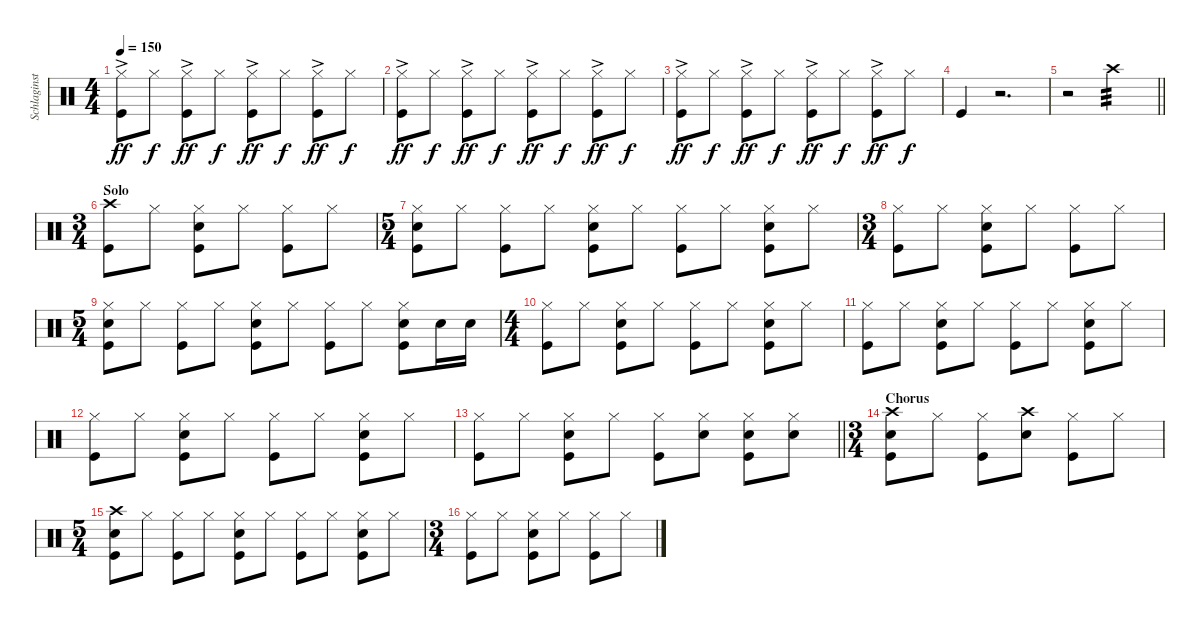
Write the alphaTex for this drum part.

\track ("Schlaginstrumente - Auswahl" "Schlaginst") {instrument percussion}
\staff {score}
\articulation defaults
\ts (4 4)
\tempo 150
\clef neutral
\ks c
("Hi-Hat (closed)"{ac} "Kick (hit)").8{dy ff} "Hi-Hat (closed)".8{dy f} ("Hi-Hat (closed)"{ac} "Kick (hit)").8{dy ff} "Hi-Hat (closed)".8{dy f} ("Hi-Hat (closed)"{ac} "Kick (hit)").8{dy ff} "Hi-Hat (closed)".8{dy f} ("Hi-Hat (closed)"{ac} "Kick (hit)").8{dy ff} "Hi-Hat (closed)".8{dy f} |
("Hi-Hat (closed)"{ac} "Kick (hit)").8{dy ff} "Hi-Hat (closed)".8{dy f} ("Hi-Hat (closed)"{ac} "Kick (hit)").8{dy ff} "Hi-Hat (closed)".8{dy f} ("Hi-Hat (closed)"{ac} "Kick (hit)").8{dy ff} "Hi-Hat (closed)".8{dy f} ("Hi-Hat (closed)"{ac} "Kick (hit)").8{dy ff} "Hi-Hat (closed)".8{dy f} |
("Hi-Hat (closed)"{ac} "Kick (hit)").8{dy ff} "Hi-Hat (closed)".8{dy f} ("Hi-Hat (closed)"{ac} "Kick (hit)").8{dy ff} "Hi-Hat (closed)".8{dy f} ("Hi-Hat (closed)"{ac} "Kick (hit)").8{dy ff} "Hi-Hat (closed)".8{dy f} ("Hi-Hat (closed)"{ac} "Kick (hit)").8{dy ff} "Hi-Hat (closed)".8{dy f} |
"Kick (hit)".4 r.2{d} |
\barLineRight lightlight
r.2 "Crash high (hit)".2{tp 3 volume 16} |
\ts (3 4)
\section ("" "Solo")
("Kick (hit)" "Crash high (hit)").8 "Hi-Hat (closed)".8 ("Hi-Hat (closed)" "Snare (hit) 2" "Kick (hit)").8 "Hi-Hat (closed)".8 ("Hi-Hat (closed)" "Kick (hit)").8 "Hi-Hat (closed)".8 |
\ts (5 4)
("Hi-Hat (closed)" "Snare (hit) 2" "Kick (hit)").8 "Hi-Hat (closed)".8 ("Hi-Hat (closed)" "Kick (hit)").8 "Hi-Hat (closed)".8 ("Hi-Hat (closed)" "Snare (hit) 2" "Kick (hit)").8 "Hi-Hat (closed)".8 ("Hi-Hat (closed)" "Kick (hit)").8 "Hi-Hat (closed)".8 ("Hi-Hat (closed)" "Snare (hit) 2" "Kick (hit)").8 "Hi-Hat (closed)".8 |
\ts (3 4)
("Kick (hit)" "Hi-Hat (closed)").8 "Hi-Hat (closed)".8 ("Hi-Hat (closed)" "Snare (hit) 2" "Kick (hit)").8 "Hi-Hat (closed)".8 ("Hi-Hat (closed)" "Kick (hit)").8 "Hi-Hat (closed)".8 |
\ts (5 4)
("Hi-Hat (closed)" "Snare (hit) 2" "Kick (hit)").8 "Hi-Hat (closed)".8 ("Hi-Hat (closed)" "Kick (hit)").8 "Hi-Hat (closed)".8 ("Hi-Hat (closed)" "Snare (hit) 2" "Kick (hit)").8 "Hi-Hat (closed)".8 ("Hi-Hat (closed)" "Kick (hit)").8 "Hi-Hat (closed)".8 ("Hi-Hat (closed)" "Snare (hit) 2" "Kick (hit)").8 "Snare (hit) 2".16 "Snare (hit) 2".16 |
\ts (4 4)
("Kick (hit)" "Hi-Hat (closed)").8 "Hi-Hat (closed)".8 ("Hi-Hat (closed)" "Snare (hit) 2" "Kick (hit)").8 "Hi-Hat (closed)".8 ("Hi-Hat (closed)" "Kick (hit)").8 "Hi-Hat (closed)".8 ("Hi-Hat (closed)" "Snare (hit) 2" "Kick (hit)").8 "Hi-Hat (closed)".8 |
("Kick (hit)" "Hi-Hat (closed)").8 "Hi-Hat (closed)".8 ("Hi-Hat (closed)" "Snare (hit) 2" "Kick (hit)").8 "Hi-Hat (closed)".8 ("Hi-Hat (closed)" "Kick (hit)").8 "Hi-Hat (closed)".8 ("Hi-Hat (closed)" "Snare (hit) 2" "Kick (hit)").8 "Hi-Hat (closed)".8 |
("Kick (hit)" "Hi-Hat (closed)").8 "Hi-Hat (closed)".8 ("Hi-Hat (closed)" "Snare (hit) 2" "Kick (hit)").8 "Hi-Hat (closed)".8 ("Hi-Hat (closed)" "Kick (hit)").8 "Hi-Hat (closed)".8 ("Hi-Hat (closed)" "Snare (hit) 2" "Kick (hit)").8 "Hi-Hat (closed)".8 |
\barLineRight lightlight
("Kick (hit)" "Hi-Hat (closed)").8 "Hi-Hat (closed)".8 ("Hi-Hat (closed)" "Snare (hit) 2" "Kick (hit)").8 "Hi-Hat (closed)".8 ("Hi-Hat (closed)" "Kick (hit)").8 ("Hi-Hat (closed)" "Snare (hit) 2").8 ("Hi-Hat (closed)" "Snare (hit) 2" "Kick (hit)").8 ("Hi-Hat (closed)" "Snare (hit) 2").8 |
\ts (3 4)
\section ("" "Chorus")
("Kick (hit)" "Crash high (hit)" "Snare (hit) 2").8 "Hi-Hat (closed)".8 ("Hi-Hat (closed)" "Kick (hit)").8 ("Crash high (hit)" "Snare (hit) 2").8 ("Hi-Hat (closed)" "Kick (hit)").8 "Hi-Hat (closed)".8 |
\ts (5 4)
("Crash high (hit)" "Snare (hit) 2" "Kick (hit)").8 "Hi-Hat (closed)".8 ("Kick (hit)" "Hi-Hat (closed)").8 "Hi-Hat (closed)".8 ("Hi-Hat (closed)" "Kick (hit)" "Snare (hit) 2").8 "Hi-Hat (closed)".8 ("Hi-Hat (closed)" "Kick (hit)").8 "Hi-Hat (closed)".8 ("Hi-Hat (closed)" "Kick (hit)" "Snare (hit) 2").8 "Hi-Hat (closed)".8 |
\ts (3 4)
("Kick (hit)" "Hi-Hat (closed)").8 "Hi-Hat (closed)".8 ("Hi-Hat (closed)" "Kick (hit)" "Snare (hit) 2").8 "Hi-Hat (closed)".8 ("Hi-Hat (closed)" "Kick (hit)").8 "Hi-Hat (closed)".8
